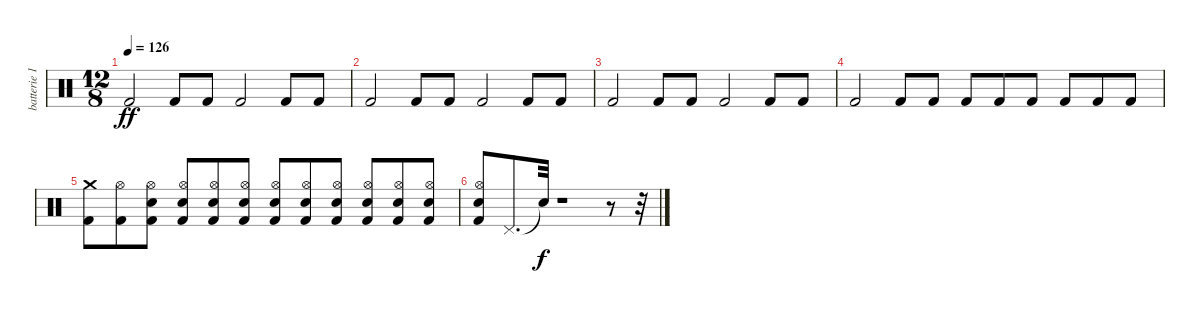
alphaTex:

\track ("batterie 1" "batterie 1") {instrument percussion}
\staff {score}
\articulation defaults
\ts (12 8)
\tempo 126
\clef neutral
\ks c "Kick (hit) 2".2{dy ff} "Kick (hit) 2".8 "Kick (hit) 2".8 "Kick (hit) 2".2 "Kick (hit) 2".8 "Kick (hit) 2".8
|
"Kick (hit) 2".2 "Kick (hit) 2".8 "Kick (hit) 2".8 "Kick (hit) 2".2 "Kick (hit) 2".8 "Kick (hit) 2".8 |
"Kick (hit) 2".2 "Kick (hit) 2".8 "Kick (hit) 2".8 "Kick (hit) 2".2 "Kick (hit) 2".8 "Kick (hit) 2".8 |
"Kick (hit) 2".2 "Kick (hit) 2".8 "Kick (hit) 2".8 "Kick (hit) 2".8 "Kick (hit) 2".8 "Kick (hit) 2".8 "Kick (hit) 2".8 "Kick (hit) 2".8 "Kick (hit) 2".8 |
("Kick (hit) 2" "Crash medium (hit)").8 ("Kick (hit) 2" "Hi-Hat (open)").8 ("Kick (hit) 2" "Electric Snare (hit)" "Hi-Hat (open)").8 ("Kick (hit) 2" "Electric Snare (hit)" "Hi-Hat (open)").8 ("Kick (hit) 2" "Electric Snare (hit)" "Hi-Hat (open)").8 ("Kick (hit) 2" "Electric Snare (hit)" "Hi-Hat (open)").8 ("Kick (hit) 2" "Electric Snare (hit)" "Hi-Hat (open)").8 ("Kick (hit) 2" "Electric Snare (hit)" "Hi-Hat (open)").8 ("Kick (hit) 2" "Electric Snare (hit)" "Hi-Hat (open)").8 ("Kick (hit) 2" "Electric Snare (hit)" "Hi-Hat (open)").8 ("Kick (hit) 2" "Electric Snare (hit)" "Hi-Hat (open)").8 ("Kick (hit) 2" "Electric Snare (hit)" "Hi-Hat (open)").8 |
("Kick (hit) 2" "Electric Snare (hit)" "Hi-Hat (open)").8 "Pedal Hi-Hat (hit)".8{d} "Snare (hit)"{t}.32{dy f} r.1 r.8 r.32
